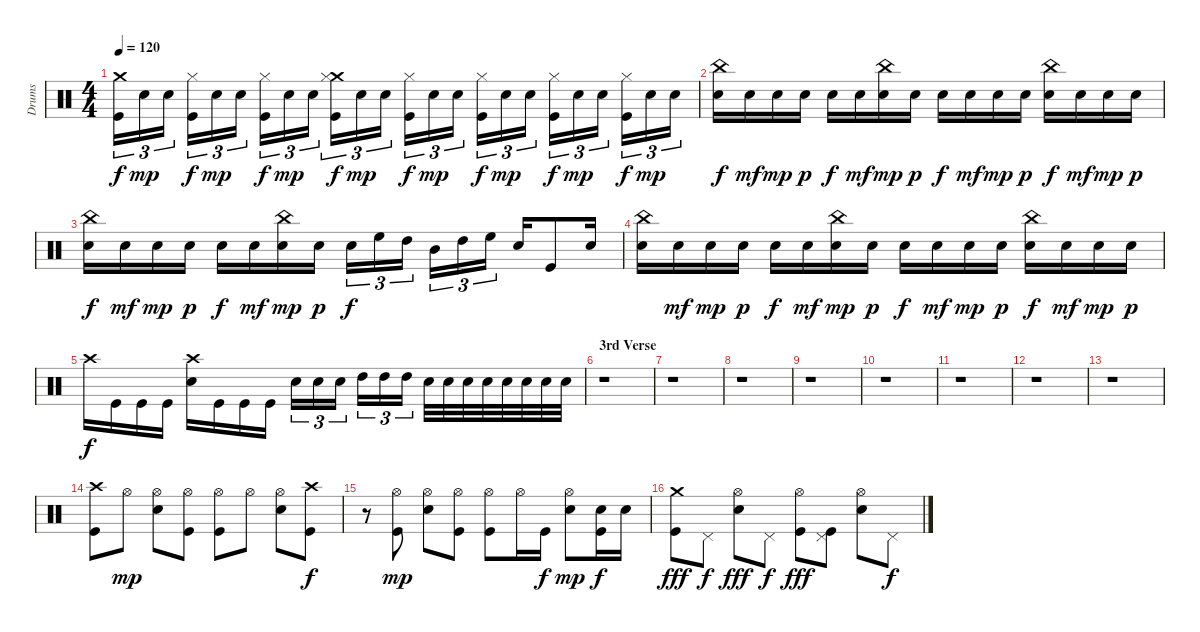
\track ("Drums" "Drums") {instrument percussion}
\staff {score}
\articulation defaults
\ts (4 4)
\tempo 120
\clef neutral
\ks c
("Crash medium (hit)" "Kick (hit)").16{tu (3 2) dy f} "Electric Snare (hit)".16{tu (3 2) dy mp} "Electric Snare (hit)".16{tu (3 2)} ("Hi-Hat (closed)" "Kick (hit)").16{tu (3 2) dy f} "Electric Snare (hit)".16{tu (3 2) dy mp} "Electric Snare (hit)".16{tu (3 2)} ("Hi-Hat (closed)" "Kick (hit)").16{tu (3 2) dy f} "Electric Snare (hit)".16{tu (3 2) dy mp} "Electric Snare (hit)".16{tu (3 2)} ("Crash medium (hit)" "Hi-Hat (closed)" "Kick (hit)").16{tu (3 2) dy f} "Electric Snare (hit)".16{tu (3 2) dy mp} "Electric Snare (hit)".16{tu (3 2)} ("Hi-Hat (closed)" "Kick (hit)").16{tu (3 2) dy f} "Electric Snare (hit)".16{tu (3 2) dy mp} "Electric Snare (hit)".16{tu (3 2)} ("Hi-Hat (closed)" "Kick (hit)").16{tu (3 2) dy f} "Electric Snare (hit)".16{tu (3 2) dy mp} "Electric Snare (hit)".16{tu (3 2)} ("Hi-Hat (closed)" "Kick (hit)").16{tu (3 2) dy f} "Electric Snare (hit)".16{tu (3 2) dy mp} "Electric Snare (hit)".16{tu (3 2)} ("Hi-Hat (closed)" "Kick (hit)").16{tu (3 2) dy f} "Electric Snare (hit)".16{tu (3 2) dy mp} "Electric Snare (hit)".16{tu (3 2)} |
("China (hit)" "Electric Snare (hit)").16{dy f} "Electric Snare (hit)".16{dy mf} "Electric Snare (hit)".16{dy mp} "Electric Snare (hit)".16{dy p} "Electric Snare (hit)".16{dy f} "Electric Snare (hit)".16{dy mf} ("China (hit)" "Electric Snare (hit)").16{dy mp} "Electric Snare (hit)".16{dy p} "Electric Snare (hit)".16{dy f} "Electric Snare (hit)".16{dy mf} "Electric Snare (hit)".16{dy mp} "Electric Snare (hit)".16{dy p} ("China (hit)" "Electric Snare (hit)").16{dy f} "Electric Snare (hit)".16{dy mf} "Electric Snare (hit)".16{dy mp} "Electric Snare (hit)".16{dy p} |
("China (hit)" "Electric Snare (hit)").16{dy f} "Electric Snare (hit)".16{dy mf} "Electric Snare (hit)".16{dy mp} "Electric Snare (hit)".16{dy p} "Electric Snare (hit)".16{dy f} "Electric Snare (hit)".16{dy mf} ("China (hit)" "Electric Snare (hit)").16{dy mp} "Electric Snare (hit)".16{dy p} "Electric Snare (hit)".16{tu (3 2) dy f} "High Floor Tom (hit)".16{tu (3 2)} "High Tom (hit)".16{tu (3 2)} "Mid Tom (hit)".16{tu (3 2)} "High Tom (hit)".16{tu (3 2)} "High Floor Tom (hit)".16{tu (3 2)} "Electric Snare (hit)".16 "Kick (hit)".8 "Electric Snare (hit)".16 |
("China (hit)" "Electric Snare (hit)").16 "Electric Snare (hit)".16{dy mf} "Electric Snare (hit)".16{dy mp} "Electric Snare (hit)".16{dy p} "Electric Snare (hit)".16{dy f} "Electric Snare (hit)".16{dy mf} ("China (hit)" "Electric Snare (hit)").16{dy mp} "Electric Snare (hit)".16{dy p} "Electric Snare (hit)".16{dy f} "Electric Snare (hit)".16{dy mf} "Electric Snare (hit)".16{dy mp} "Electric Snare (hit)".16{dy p} ("China (hit)" "Electric Snare (hit)").16{dy f} "Electric Snare (hit)".16{dy mf} "Electric Snare (hit)".16{dy mp} "Electric Snare (hit)".16{dy p} |
"Crash high (hit)".16{dy f} "Kick (hit)".16 "Kick (hit)".16 "Kick (hit)".16 ("Crash high (hit)" "Electric Snare (hit)").16 "Kick (hit)".16 "Kick (hit)".16 "Kick (hit)".16 "Electric Snare (hit)".16{tu (3 2)} "Electric Snare (hit)".16{tu (3 2)} "Electric Snare (hit)".16{tu (3 2)} "High Tom (hit)".16{tu (3 2)} "High Tom (hit)".16{tu (3 2)} "High Tom (hit)".16{tu (3 2)} "Electric Snare (hit)".32 "Electric Snare (hit)".32 "Electric Snare (hit)".32 "Electric Snare (hit)".32 "Electric Snare (hit)".32 "Electric Snare (hit)".32 "Electric Snare (hit)".32 "Electric Snare (hit)".32 |
\section ("" "3rd Verse")
r.1 |
r.1 |
r.1 |
r.1 |
r.1 |
r.1 |
r.1 |
r.1 |
("Crash high (hit)" "Kick (hit)").8 "Hi-Hat (open)".8{dy mp} ("Hi-Hat (open)" "Electric Snare (hit)").8 ("Hi-Hat (open)" "Kick (hit)").8 ("Hi-Hat (open)" "Kick (hit)").8 "Hi-Hat (open)".8 ("Hi-Hat (open)" "Electric Snare (hit)").8 ("Crash high (hit)" "Kick (hit)").8{dy f} |
r.8 ("Hi-Hat (open)" "Kick (hit)").8{dy mp} ("Hi-Hat (open)" "Electric Snare (hit)").8 ("Hi-Hat (open)" "Kick (hit)").8 ("Hi-Hat (open)" "Kick (hit)").8 "Hi-Hat (open)".16 "Kick (hit)".16{dy f} ("Hi-Hat (open)" "Electric Snare (hit)").8{dy mp} ("Electric Snare (hit)" "Kick (hit)").16{dy f} "Electric Snare (hit)".16 |
("Crash medium (hit)" "Kick (hit)").8{dy fff} "Pedal Hi-Hat (hit)".8{dy f} ("Hi-Hat (open)" "Electric Snare (hit)").8{dy fff} "Pedal Hi-Hat (hit)".8{dy f} ("Hi-Hat (open)" "Kick (hit)").8{dy fff} ("Pedal Hi-Hat (hit)" "Kick (hit)").8 ("Hi-Hat (open)" "Electric Snare (hit)").8 "Pedal Hi-Hat (hit)".8{dy f}
